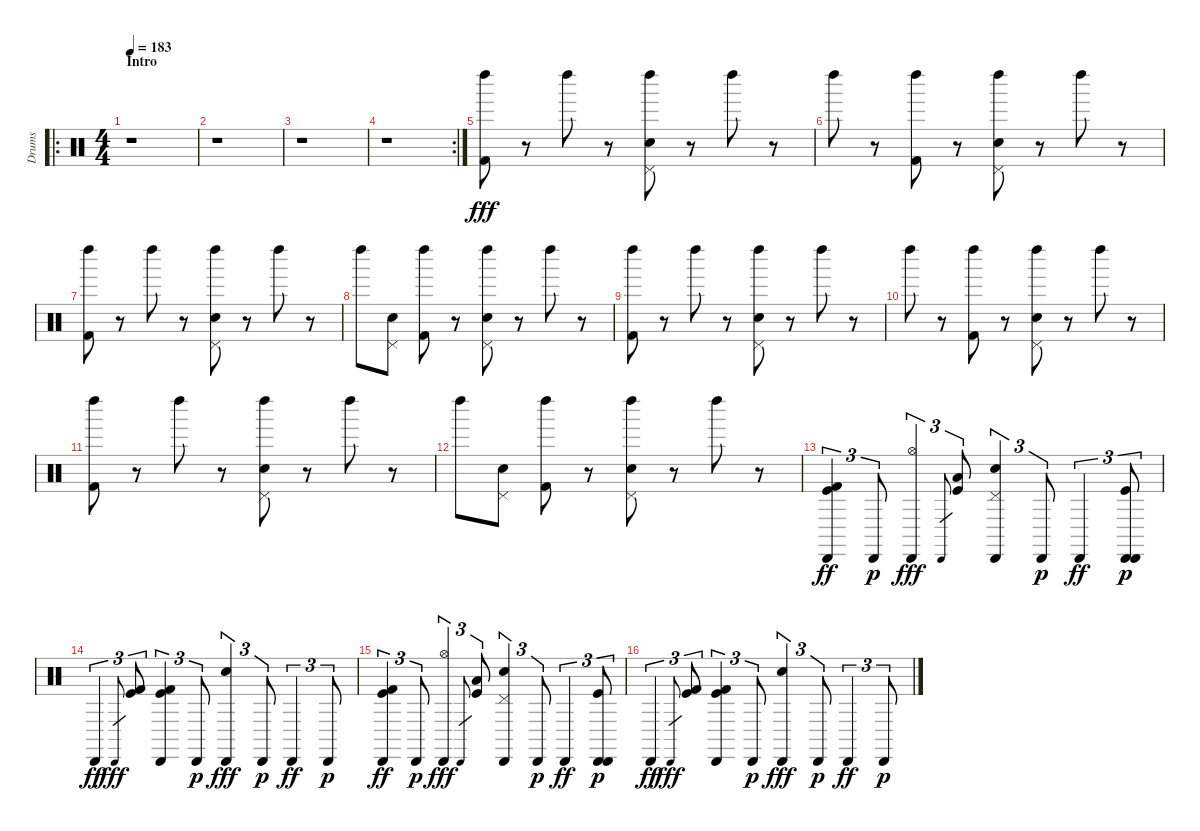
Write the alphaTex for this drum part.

\track ("Drums" "Drums") {instrument percussion}
\staff {score}
\articulation defaults
\ro
\ts (4 4)
\section ("" "Intro")
\tempo 183
\clef neutral
\ks c
r.1{dy fff} |
r.1 |
r.1 |
\rc 2
r.1 |
("Kick (hit) 2" "Left Maraca (hit)").8 r.8 "Left Maraca (hit)".8 r.8 ("Left Maraca (hit)" "Electric Snare (hit)" "Pedal Hi-Hat (hit)").8 r.8 "Left Maraca (hit)".8 r.8 |
"Left Maraca (hit)".8 r.8 ("Left Maraca (hit)" "Kick (hit) 2").8 r.8 ("Left Maraca (hit)" "Electric Snare (hit)" "Pedal Hi-Hat (hit)").8 r.8 "Left Maraca (hit)".8 r.8 |
("Left Maraca (hit)" "Kick (hit) 2").8 r.8 "Left Maraca (hit)".8 r.8 ("Left Maraca (hit)" "Electric Snare (hit)" "Pedal Hi-Hat (hit)").8 r.8 "Left Maraca (hit)".8 r.8 |
"Left Maraca (hit)".8 ("Electric Snare (hit)" "Pedal Hi-Hat (hit)").8 ("Left Maraca (hit)" "Kick (hit) 2").8 r.8 ("Left Maraca (hit)" "Electric Snare (hit)" "Pedal Hi-Hat (hit)").8 r.8 "Left Maraca (hit)".8 r.8 |
("Kick (hit) 2" "Left Maraca (hit)").8 r.8 "Left Maraca (hit)".8 r.8 ("Left Maraca (hit)" "Electric Snare (hit)" "Pedal Hi-Hat (hit)").8 r.8 "Left Maraca (hit)".8 r.8 |
"Left Maraca (hit)".8 r.8 ("Left Maraca (hit)" "Kick (hit) 2").8 r.8 ("Left Maraca (hit)" "Electric Snare (hit)" "Pedal Hi-Hat (hit)").8 r.8 "Left Maraca (hit)".8 r.8 |
("Left Maraca (hit)" "Kick (hit) 2").8 r.8 "Left Maraca (hit)".8 r.8 ("Left Maraca (hit)" "Electric Snare (hit)" "Pedal Hi-Hat (hit)").8 r.8 "Left Maraca (hit)".8 r.8 |
"Left Maraca (hit)".8 ("Electric Snare (hit)" "Pedal Hi-Hat (hit)").8 ("Left Maraca (hit)" "Kick (hit) 2").8 r.8 ("Left Maraca (hit)" "Electric Snare (hit)" "Pedal Hi-Hat (hit)").8 r.8 "Left Maraca (hit)".8 r.8 |
("Kick (hit) 2" "Kick (hit)" "Cabasa (hit)").4{tu (3 2) dy ff} "Cabasa (hit)".8{tu (3 2) dy p} ("Cabasa (hit)" "Hi-Hat (open)").4{tu (3 2) dy fff} "Cabasa (hit)".8{gr} ("Kick (hit)" "Low Floor Tom (hit)").8{tu (3 2)} ("Cabasa (hit)" "Electric Snare (hit)" "Pedal Hi-Hat (hit)").4{tu (3 2)} "Cabasa (hit)".8{tu (3 2) dy p} "Cabasa (hit)".4{tu (3 2) dy ff} ("Cabasa (hit)" "Kick (hit)" "Cabasa (hit)").8{tu (3 2) dy p} |
"Cabasa (hit)".4{tu (3 2) dy ff} "Cabasa (hit)".8{gr dy fff} ("Kick (hit)" "Kick (hit) 2").8{tu (3 2)} ("Cabasa (hit)" "Kick (hit)" "Kick (hit) 2").4{tu (3 2)} "Cabasa (hit)".8{tu (3 2) dy p} ("Cabasa (hit)" "Electric Snare (hit)").4{tu (3 2) dy fff} "Cabasa (hit)".8{tu (3 2) dy p} "Cabasa (hit)".4{tu (3 2) dy ff} "Cabasa (hit)".8{tu (3 2) dy p} |
("Kick (hit) 2" "Kick (hit)" "Cabasa (hit)").4{tu (3 2) dy ff} "Cabasa (hit)".8{tu (3 2) dy p} ("Cabasa (hit)" "Hi-Hat (open)").4{tu (3 2) dy fff} "Cabasa (hit)".8{gr} ("Kick (hit)" "Low Floor Tom (hit)").8{tu (3 2)} ("Cabasa (hit)" "Electric Snare (hit)" "Pedal Hi-Hat (hit)").4{tu (3 2)} "Cabasa (hit)".8{tu (3 2) dy p} "Cabasa (hit)".4{tu (3 2) dy ff} ("Cabasa (hit)" "Kick (hit)" "Cabasa (hit)").8{tu (3 2) dy p} |
"Cabasa (hit)".4{tu (3 2) dy ff} "Cabasa (hit)".8{gr dy fff} ("Kick (hit)" "Kick (hit) 2").8{tu (3 2)} ("Cabasa (hit)" "Kick (hit)" "Kick (hit) 2").4{tu (3 2)} "Cabasa (hit)".8{tu (3 2) dy p} ("Cabasa (hit)" "Electric Snare (hit)").4{tu (3 2) dy fff} "Cabasa (hit)".8{tu (3 2) dy p} "Cabasa (hit)".4{tu (3 2) dy ff} "Cabasa (hit)".8{tu (3 2) dy p}
